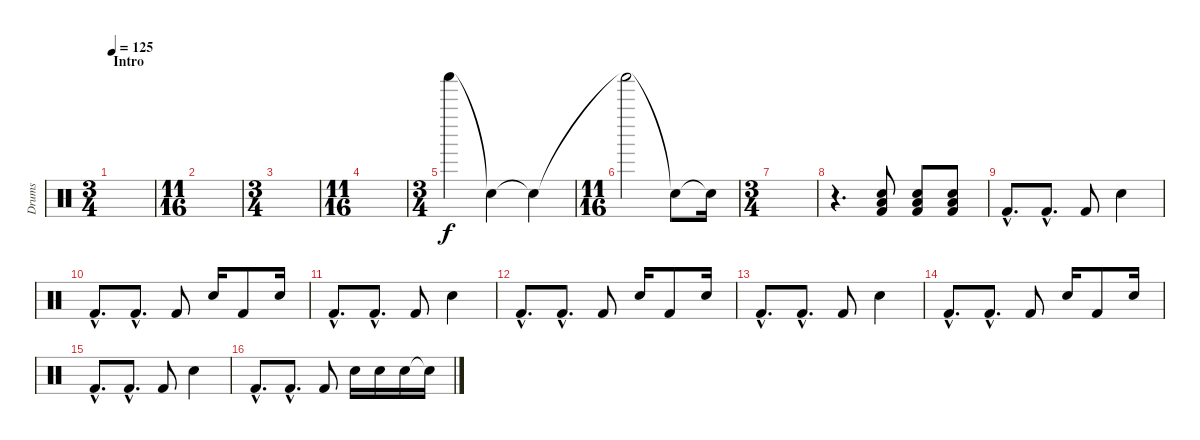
\track ("Drums" "Drums") {instrument percussion}
\staff {score}
\articulation defaults
\ts (3 4)
\section ("" "Intro")
\tempo 125
\clef neutral
\ks c
|
\ts (11 16)
|
\ts (3 4)
|
\ts (11 16)
|
\ts (3 4)
"Shaker (hit)".4{volume 12} "Snare (hit)"{t}.4 "Snare (hit)"{t}.4 |
\ts (11 16)
"Shaker (hit)"{t}.2 "Snare (hit)"{t}.8 "Snare (hit)"{t}.16 |
\ts (3 4)
|
r.4{d volume 16} ("Low Floor Tom (hit)" "Electric Snare (hit)" "Kick (hit) 2").8 ("Low Floor Tom (hit)" "Electric Snare (hit)" "Kick (hit) 2").8 ("Low Floor Tom (hit)" "Electric Snare (hit)" "Kick (hit) 2").8 |
"Kick (hit) 2"{hac}.8{d} "Kick (hit) 2"{hac}.8{d} "Kick (hit) 2".8 "Electric Snare (hit)".4 |
"Kick (hit) 2"{hac}.8{d} "Kick (hit) 2"{hac}.8{d} "Kick (hit) 2".8 "Electric Snare (hit)".16 "Kick (hit) 2".8 "Electric Snare (hit)".16 |
"Kick (hit) 2"{hac}.8{d} "Kick (hit) 2"{hac}.8{d} "Kick (hit) 2".8 "Electric Snare (hit)".4 |
"Kick (hit) 2"{hac}.8{d} "Kick (hit) 2"{hac}.8{d} "Kick (hit) 2".8 "Electric Snare (hit)".16 "Kick (hit) 2".8 "Electric Snare (hit)".16 |
"Kick (hit) 2"{hac}.8{d} "Kick (hit) 2"{hac}.8{d} "Kick (hit) 2".8 "Electric Snare (hit)".4 |
"Kick (hit) 2"{hac}.8{d} "Kick (hit) 2"{hac}.8{d} "Kick (hit) 2".8 "Electric Snare (hit)".16 "Kick (hit) 2".8 "Electric Snare (hit)".16 |
"Kick (hit) 2"{hac}.8{d} "Kick (hit) 2"{hac}.8{d} "Kick (hit) 2".8 "Electric Snare (hit)".4 |
"Kick (hit) 2"{hac}.8{d} "Kick (hit) 2"{hac}.8{d} "Kick (hit) 2".8 "Electric Snare (hit)".16 "Electric Snare (hit)".16 "Electric Snare (hit)".16 "Snare (hit)"{t}.16
